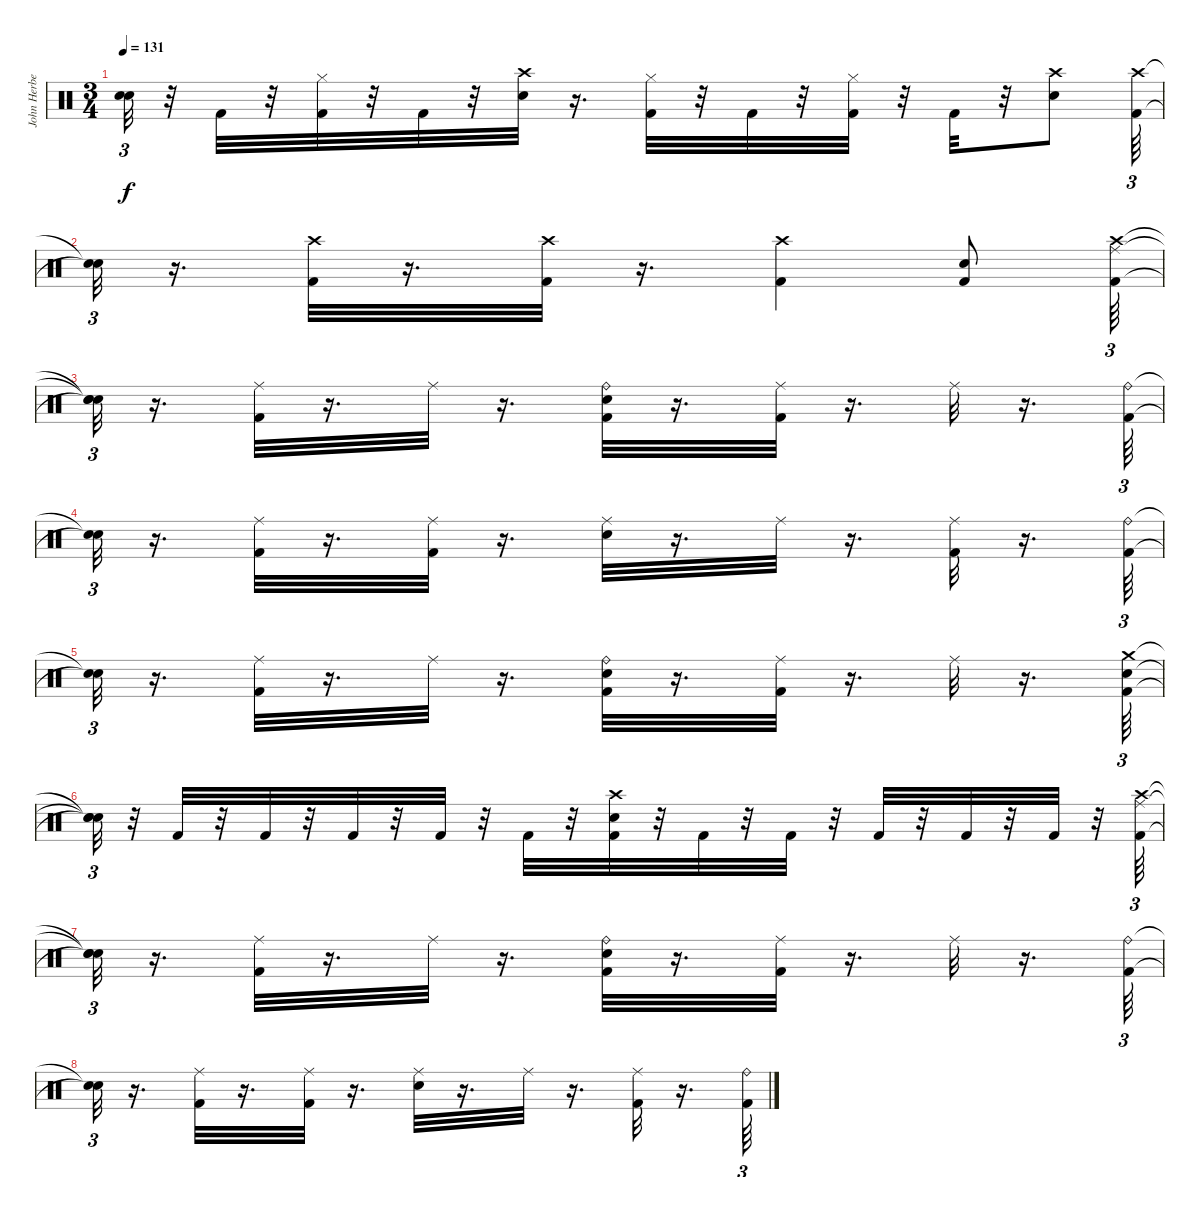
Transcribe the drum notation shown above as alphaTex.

\track ("John Herbert" "John Herbe") {instrument percussion}
\staff {score}
\articulation defaults
\ts (3 4)
\tempo 131
\clef neutral
\ks c
("Snare (hit)"{t} "Snare (hit)"{t}).32{tu (3 2) dy f} r.32 "Kick (hit) 2".32 r.32 ("Hi-Hat (closed)" "Kick (hit) 2").32 r.32 "Kick (hit) 2".32 r.32 ("Crash high (hit)" "Snare (hit) 2").32 r.16{d} ("Hi-Hat (closed)" "Kick (hit) 2").32 r.32 "Kick (hit) 2".32 r.32 ("Hi-Hat (closed)" "Kick (hit) 2").32 r.32 "Kick (hit) 2".32 r.32 ("Crash high (hit)" "Snare (hit) 2").8 ("Kick (hit) 2" "Crash high (hit)").64{tu (3 2)} |
("Snare (hit)"{t} "Snare (hit)"{t}).32{tu (3 2)} r.16{d} ("Kick (hit) 2" "Crash high (hit)").32 r.16{d} ("Kick (hit) 2" "Crash high (hit)").32 r.16{d} ("Kick (hit) 2" "Crash high (hit)").4 ("Snare (hit) 2" "Kick (hit) 2").8 ("Crash high (hit)" "Kick (hit) 2" "Ride (middle)").64{tu (3 2)} |
("Snare (hit)"{t} "Snare (hit)"{t} "Snare (hit)"{t}).32{tu (3 2)} r.16{d} ("Kick (hit) 2" "Ride (middle)").32 r.16{d} "Ride (middle)".32 r.16{d} ("Kick (hit) 2" "Snare (hit) 2" "Ride (bell)").32 r.16{d} ("Kick (hit) 2" "Ride (middle)").32 r.16{d} "Ride (middle)".32 r.16{d} ("Kick (hit) 2" "Ride (bell)").64{tu (3 2)} |
("Snare (hit)"{t} "Snare (hit)"{t}).32{tu (3 2)} r.16{d} ("Kick (hit) 2" "Ride (middle)").32 r.16{d} ("Kick (hit) 2" "Ride (middle)").32 r.16{d} ("Snare (hit) 2" "Ride (middle)").32 r.16{d} "Ride (middle)".32 r.16{d} ("Kick (hit) 2" "Ride (middle)").32 r.16{d} ("Kick (hit) 2" "Ride (bell)").64{tu (3 2)} |
("Snare (hit)"{t} "Snare (hit)"{t}).32{tu (3 2)} r.16{d} ("Kick (hit) 2" "Ride (middle)").32 r.16{d} "Ride (middle)".32 r.16{d} ("Kick (hit) 2" "Snare (hit) 2" "Ride (bell)").32 r.16{d} ("Kick (hit) 2" "Ride (middle)").32 r.16{d} "Ride (middle)".32 r.16{d} ("Snare (hit) 2" "Kick (hit) 2" "Crash medium (hit)").64{tu (3 2)} |
("Snare (hit)"{t} "Snare (hit)"{t} "Snare (hit)"{t}).32{tu (3 2)} r.32 "Kick (hit) 2".32 r.32 "Kick (hit) 2".32 r.32 "Kick (hit) 2".32 r.32 "Kick (hit) 2".32 r.32 "Kick (hit) 2".32 r.32 ("Crash high (hit)" "Snare (hit) 2" "Kick (hit) 2").32 r.32 "Kick (hit) 2".32 r.32 "Kick (hit) 2".32 r.32 "Kick (hit) 2".32 r.32 "Kick (hit) 2".32 r.32 "Kick (hit) 2".32 r.32 ("Crash high (hit)" "Kick (hit) 2" "Ride (middle)").64{tu (3 2)} |
("Snare (hit)"{t} "Snare (hit)"{t} "Snare (hit)"{t}).32{tu (3 2)} r.16{d} ("Kick (hit) 2" "Ride (middle)").32 r.16{d} "Ride (middle)".32 r.16{d} ("Kick (hit) 2" "Snare (hit) 2" "Ride (bell)").32 r.16{d} ("Kick (hit) 2" "Ride (middle)").32 r.16{d} "Ride (middle)".32 r.16{d} ("Kick (hit) 2" "Ride (bell)").64{tu (3 2)} |
("Snare (hit)"{t} "Snare (hit)"{t}).32{tu (3 2)} r.16{d} ("Kick (hit) 2" "Ride (middle)").32 r.16{d} ("Kick (hit) 2" "Ride (middle)").32 r.16{d} ("Snare (hit) 2" "Ride (middle)").32 r.16{d} "Ride (middle)".32 r.16{d} ("Kick (hit) 2" "Ride (middle)").32 r.16{d} ("Kick (hit) 2" "Ride (bell)").64{tu (3 2)}
